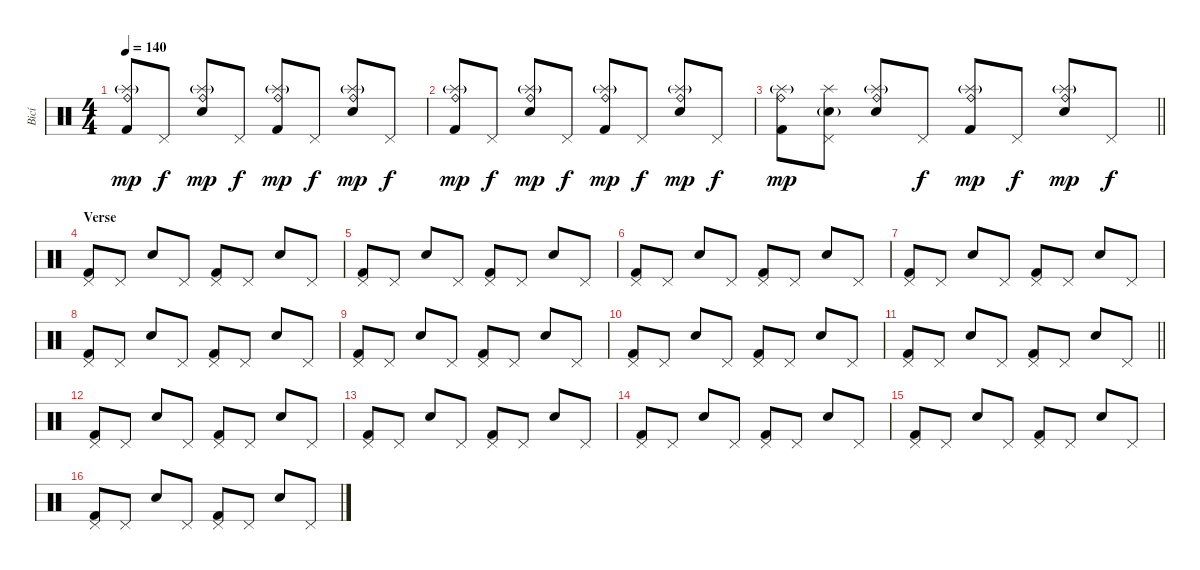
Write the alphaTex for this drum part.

\track ("Bicí" "Bicí") {instrument percussion}
\staff {score}
\articulation defaults
\ts (4 4)
\tempo 140
\clef neutral
\ks c
("Ride (bell)" "Splash (hit)"{g} "Kick (hit) 2").8{dy mp} "Pedal Hi-Hat (hit)".8{dy f} ("Ride (bell)" "Splash (hit)"{g} "Electric Snare (hit)").8{dy mp} "Pedal Hi-Hat (hit)".8{dy f} ("Ride (bell)" "Splash (hit)"{g} "Kick (hit) 2").8{dy mp} "Pedal Hi-Hat (hit)".8{dy f} ("Ride (bell)" "Splash (hit)"{g} "Electric Snare (hit)").8{dy mp} "Pedal Hi-Hat (hit)".8{dy f} |
("Ride (bell)" "Splash (hit)"{g} "Kick (hit) 2").8{dy mp} "Pedal Hi-Hat (hit)".8{dy f} ("Ride (bell)" "Splash (hit)"{g} "Electric Snare (hit)").8{dy mp} "Pedal Hi-Hat (hit)".8{dy f} ("Ride (bell)" "Splash (hit)"{g} "Kick (hit) 2").8{dy mp} "Pedal Hi-Hat (hit)".8{dy f} ("Ride (bell)" "Splash (hit)"{g} "Electric Snare (hit)").8{dy mp} "Pedal Hi-Hat (hit)".8{dy f} |
\barLineRight lightlight
("Ride (bell)" "Splash (hit)"{g} "Kick (hit) 2").8{dy mp} ("Pedal Hi-Hat (hit)" "Splash (hit)" "Electric Snare (hit)"{g}).8 ("Ride (bell)" "Splash (hit)"{g} "Electric Snare (hit)").8 "Pedal Hi-Hat (hit)".8{dy f} ("Ride (bell)" "Splash (hit)"{g} "Kick (hit) 2").8{dy mp} "Pedal Hi-Hat (hit)".8{dy f} ("Ride (bell)" "Splash (hit)"{g} "Electric Snare (hit)").8{dy mp} "Pedal Hi-Hat (hit)".8{dy f} |
\section ("" "Verse")
("Pedal Hi-Hat (hit)" "Kick (hit) 2").8 "Pedal Hi-Hat (hit)".8 "Electric Snare (hit)".8 "Pedal Hi-Hat (hit)".8 ("Pedal Hi-Hat (hit)" "Kick (hit) 2").8 "Pedal Hi-Hat (hit)".8 "Electric Snare (hit)".8 "Pedal Hi-Hat (hit)".8 |
("Pedal Hi-Hat (hit)" "Kick (hit) 2").8 "Pedal Hi-Hat (hit)".8 "Electric Snare (hit)".8 "Pedal Hi-Hat (hit)".8 ("Pedal Hi-Hat (hit)" "Kick (hit) 2").8 "Pedal Hi-Hat (hit)".8 "Electric Snare (hit)".8 "Pedal Hi-Hat (hit)".8 |
("Pedal Hi-Hat (hit)" "Kick (hit) 2").8 "Pedal Hi-Hat (hit)".8 "Electric Snare (hit)".8 "Pedal Hi-Hat (hit)".8 ("Pedal Hi-Hat (hit)" "Kick (hit) 2").8 "Pedal Hi-Hat (hit)".8 "Electric Snare (hit)".8 "Pedal Hi-Hat (hit)".8 |
("Pedal Hi-Hat (hit)" "Kick (hit) 2").8 "Pedal Hi-Hat (hit)".8 "Electric Snare (hit)".8 "Pedal Hi-Hat (hit)".8 ("Pedal Hi-Hat (hit)" "Kick (hit) 2").8 "Pedal Hi-Hat (hit)".8 "Electric Snare (hit)".8 "Pedal Hi-Hat (hit)".8 |
("Pedal Hi-Hat (hit)" "Kick (hit) 2").8 "Pedal Hi-Hat (hit)".8 "Electric Snare (hit)".8 "Pedal Hi-Hat (hit)".8 ("Pedal Hi-Hat (hit)" "Kick (hit) 2").8 "Pedal Hi-Hat (hit)".8 "Electric Snare (hit)".8 "Pedal Hi-Hat (hit)".8 |
("Pedal Hi-Hat (hit)" "Kick (hit) 2").8 "Pedal Hi-Hat (hit)".8 "Electric Snare (hit)".8 "Pedal Hi-Hat (hit)".8 ("Pedal Hi-Hat (hit)" "Kick (hit) 2").8 "Pedal Hi-Hat (hit)".8 "Electric Snare (hit)".8 "Pedal Hi-Hat (hit)".8 |
("Pedal Hi-Hat (hit)" "Kick (hit) 2").8 "Pedal Hi-Hat (hit)".8 "Electric Snare (hit)".8 "Pedal Hi-Hat (hit)".8 ("Pedal Hi-Hat (hit)" "Kick (hit) 2").8 "Pedal Hi-Hat (hit)".8 "Electric Snare (hit)".8 "Pedal Hi-Hat (hit)".8 |
\barLineRight lightlight
("Pedal Hi-Hat (hit)" "Kick (hit) 2").8 "Pedal Hi-Hat (hit)".8 "Electric Snare (hit)".8 "Pedal Hi-Hat (hit)".8 ("Pedal Hi-Hat (hit)" "Kick (hit) 2").8 "Pedal Hi-Hat (hit)".8 "Electric Snare (hit)".8 "Pedal Hi-Hat (hit)".8 |
("Pedal Hi-Hat (hit)" "Kick (hit) 2").8 "Pedal Hi-Hat (hit)".8 "Electric Snare (hit)".8 "Pedal Hi-Hat (hit)".8 ("Pedal Hi-Hat (hit)" "Kick (hit) 2").8 "Pedal Hi-Hat (hit)".8 "Electric Snare (hit)".8 "Pedal Hi-Hat (hit)".8 |
("Pedal Hi-Hat (hit)" "Kick (hit) 2").8 "Pedal Hi-Hat (hit)".8 "Electric Snare (hit)".8 "Pedal Hi-Hat (hit)".8 ("Pedal Hi-Hat (hit)" "Kick (hit) 2").8 "Pedal Hi-Hat (hit)".8 "Electric Snare (hit)".8 "Pedal Hi-Hat (hit)".8 |
("Pedal Hi-Hat (hit)" "Kick (hit) 2").8 "Pedal Hi-Hat (hit)".8 "Electric Snare (hit)".8 "Pedal Hi-Hat (hit)".8 ("Pedal Hi-Hat (hit)" "Kick (hit) 2").8 "Pedal Hi-Hat (hit)".8 "Electric Snare (hit)".8 "Pedal Hi-Hat (hit)".8 |
("Pedal Hi-Hat (hit)" "Kick (hit) 2").8 "Pedal Hi-Hat (hit)".8 "Electric Snare (hit)".8 "Pedal Hi-Hat (hit)".8 ("Pedal Hi-Hat (hit)" "Kick (hit) 2").8 "Pedal Hi-Hat (hit)".8 "Electric Snare (hit)".8 "Pedal Hi-Hat (hit)".8 |
("Pedal Hi-Hat (hit)" "Kick (hit) 2").8 "Pedal Hi-Hat (hit)".8 "Electric Snare (hit)".8 "Pedal Hi-Hat (hit)".8 ("Pedal Hi-Hat (hit)" "Kick (hit) 2").8 "Pedal Hi-Hat (hit)".8 "Electric Snare (hit)".8 "Pedal Hi-Hat (hit)".8
